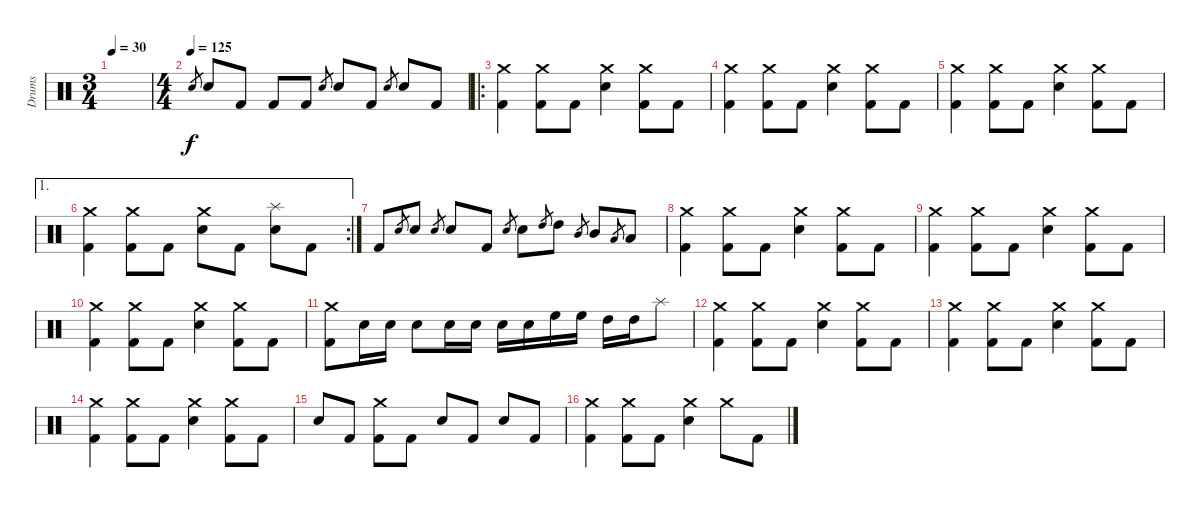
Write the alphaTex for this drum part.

\track ("Drums" "Drums") {instrument percussion}
\staff {score}
\articulation defaults
\ts (3 4)
\tempo 30
\clef neutral
\ks c
|
\ts (4 4)
\tempo (125)
"Snare (hit) 2".8{gr} "Snare (hit) 2".8 "Kick (hit) 2".8 "Kick (hit) 2".8 "Kick (hit) 2".8 "Snare (hit) 2".8{gr} "Snare (hit) 2".8 "Kick (hit) 2".8 "Snare (hit) 2".8{gr} "Snare (hit) 2".8 "Kick (hit) 2".8 |
\ro
("Crash medium (hit)" "Kick (hit) 2").4 ("Crash medium (hit)" "Kick (hit) 2").8 "Kick (hit) 2".8 ("Crash medium (hit)" "Snare (hit) 2").4 ("Crash medium (hit)" "Kick (hit) 2").8 "Kick (hit) 2".8 |
("Crash medium (hit)" "Kick (hit) 2").4 ("Crash medium (hit)" "Kick (hit) 2").8 "Kick (hit) 2".8 ("Crash medium (hit)" "Snare (hit) 2").4 ("Crash medium (hit)" "Kick (hit) 2").8 "Kick (hit) 2".8 |
("Crash medium (hit)" "Kick (hit) 2").4 ("Crash medium (hit)" "Kick (hit) 2").8 "Kick (hit) 2".8 ("Crash medium (hit)" "Snare (hit) 2").4 ("Crash medium (hit)" "Kick (hit) 2").8 "Kick (hit) 2".8 |
\ae 1
\rc 2
("Crash medium (hit)" "Kick (hit) 2").4 ("Crash medium (hit)" "Kick (hit) 2").8 "Kick (hit) 2".8 ("Crash medium (hit)" "Snare (hit) 2").8 "Kick (hit) 2".8 ("Splash (hit)" "Snare (hit) 2").8 "Kick (hit) 2".8 |
"Kick (hit) 2".8 "Snare (hit) 2".8{gr} "Snare (hit) 2".8 "Snare (hit) 2".8{gr} "Snare (hit) 2".8 "Kick (hit) 2".8 "Snare (hit) 2".8{gr} "Snare (hit) 2".8 "High Tom (hit)".8{gr} "High Tom (hit)".8 "Mid Tom (hit)".8{gr} "Mid Tom (hit)".8 "Low Tom (hit)".8{gr} "Low Tom (hit)".8 |
("Crash medium (hit)" "Kick (hit) 2").4 ("Crash medium (hit)" "Kick (hit) 2").8 "Kick (hit) 2".8 ("Crash medium (hit)" "Snare (hit) 2").4 ("Crash medium (hit)" "Kick (hit) 2").8 "Kick (hit) 2".8 |
("Crash medium (hit)" "Kick (hit) 2").4 ("Crash medium (hit)" "Kick (hit) 2").8 "Kick (hit) 2".8 ("Crash medium (hit)" "Snare (hit) 2").4 ("Crash medium (hit)" "Kick (hit) 2").8 "Kick (hit) 2".8 |
("Crash medium (hit)" "Kick (hit) 2").4 ("Crash medium (hit)" "Kick (hit) 2").8 "Kick (hit) 2".8 ("Crash medium (hit)" "Snare (hit) 2").4 ("Crash medium (hit)" "Kick (hit) 2").8 "Kick (hit) 2".8 |
("Crash medium (hit)" "Kick (hit) 2").8 "Snare (hit) 2".16 "Snare (hit) 2".16 "Snare (hit) 2".8 "Snare (hit) 2".16 "Snare (hit) 2".16 "Snare (hit) 2".16 "Snare (hit) 2".16 "High Floor Tom (hit)".16 "High Floor Tom (hit)".16 "High Tom (hit)".16 "High Tom (hit)".16 "Splash (hit)".8 |
("Crash medium (hit)" "Kick (hit) 2").4 ("Crash medium (hit)" "Kick (hit) 2").8 "Kick (hit) 2".8 ("Crash medium (hit)" "Snare (hit) 2").4 ("Crash medium (hit)" "Kick (hit) 2").8 "Kick (hit) 2".8 |
("Crash medium (hit)" "Kick (hit) 2").4 ("Crash medium (hit)" "Kick (hit) 2").8 "Kick (hit) 2".8 ("Crash medium (hit)" "Snare (hit) 2").4 ("Crash medium (hit)" "Kick (hit) 2").8 "Kick (hit) 2".8 |
("Crash medium (hit)" "Kick (hit) 2").4 ("Crash medium (hit)" "Kick (hit) 2").8 "Kick (hit) 2".8 ("Crash medium (hit)" "Snare (hit) 2").4 ("Crash medium (hit)" "Kick (hit) 2").8 "Kick (hit) 2".8 |
"Snare (hit) 2".8 "Kick (hit) 2".8 ("Crash medium (hit)" "Kick (hit) 2").8 "Kick (hit) 2".8 "Snare (hit) 2".8 "Kick (hit) 2".8 "Snare (hit) 2".8 "Kick (hit) 2".8 |
("Crash medium (hit)" "Kick (hit) 2").4 ("Crash medium (hit)" "Kick (hit) 2").8 "Kick (hit) 2".8 ("Crash medium (hit)" "Snare (hit) 2").4 "Crash medium (hit)".8 "Kick (hit) 2".8
